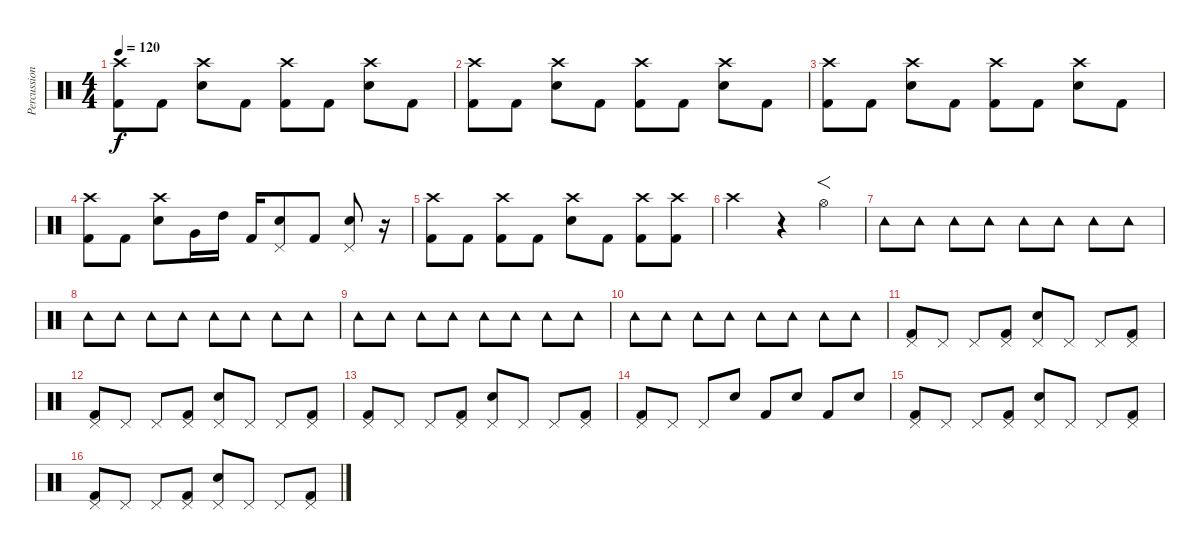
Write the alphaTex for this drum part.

\track ("Percussion" "Percussion") {instrument percussion}
\staff {score}
\articulation defaults
\ts (4 4)
\tempo 120
\clef neutral
\ks c
("Crash high (hit)" "Kick (hit) 2").8{dy f} "Kick (hit) 2".8 ("Crash high (hit)" "Electric Snare (hit)").8 "Kick (hit) 2".8 ("Crash high (hit)" "Kick (hit) 2").8 "Kick (hit) 2".8 ("Crash high (hit)" "Electric Snare (hit)").8 "Kick (hit) 2".8 |
("Crash high (hit)" "Kick (hit) 2").8 "Kick (hit) 2".8 ("Crash high (hit)" "Electric Snare (hit)").8 "Kick (hit) 2".8 ("Crash high (hit)" "Kick (hit) 2").8 "Kick (hit) 2".8 ("Crash high (hit)" "Electric Snare (hit)").8 "Kick (hit) 2".8 |
("Crash high (hit)" "Kick (hit) 2").8 "Kick (hit) 2".8 ("Crash high (hit)" "Electric Snare (hit)").8 "Kick (hit) 2".8 ("Crash high (hit)" "Kick (hit) 2").8 "Kick (hit) 2".8 ("Crash high (hit)" "Electric Snare (hit)").8 "Kick (hit) 2".8 |
("Crash high (hit)" "Kick (hit) 2").8 "Kick (hit) 2".8 ("Crash high (hit)" "Electric Snare (hit)").8 "Very Low Tom (hit)".16 "High Tom (hit)".16 "Kick (hit) 2".16 ("Pedal Hi-Hat (hit)" "Electric Snare (hit)").8 "Kick (hit) 2".8 ("Pedal Hi-Hat (hit)" "Electric Snare (hit)").8 r.16 |
("Crash high (hit)" "Kick (hit) 2").8 "Kick (hit) 2".8 ("Crash high (hit)" "Kick (hit) 2").8 "Kick (hit) 2".8 ("Crash high (hit)" "Electric Snare (hit)").8 "Kick (hit) 2".8 ("Crash high (hit)" "Kick (hit) 2").8 ("Crash high (hit)" "Kick (hit) 2").8 |
"Crash high (hit)".2 r.4 "Hi-Hat (open)".4{f} |
"Tambourine (hit)".8 "Tambourine (hit)".8 "Tambourine (hit)".8 "Tambourine (hit)".8 "Tambourine (hit)".8 "Tambourine (hit)".8 "Tambourine (hit)".8 "Tambourine (hit)".8 |
"Tambourine (hit)".8 "Tambourine (hit)".8 "Tambourine (hit)".8 "Tambourine (hit)".8 "Tambourine (hit)".8 "Tambourine (hit)".8 "Tambourine (hit)".8 "Tambourine (hit)".8 |
"Tambourine (hit)".8 "Tambourine (hit)".8 "Tambourine (hit)".8 "Tambourine (hit)".8 "Tambourine (hit)".8 "Tambourine (hit)".8 "Tambourine (hit)".8 "Tambourine (hit)".8 |
"Tambourine (hit)".8 "Tambourine (hit)".8 "Tambourine (hit)".8 "Tambourine (hit)".8 "Tambourine (hit)".8 "Tambourine (hit)".8 "Tambourine (hit)".8 "Tambourine (hit)".8 |
("Pedal Hi-Hat (hit)" "Kick (hit) 2").8 "Pedal Hi-Hat (hit)".8 "Pedal Hi-Hat (hit)".8 ("Pedal Hi-Hat (hit)" "Kick (hit) 2").8 ("Pedal Hi-Hat (hit)" "Electric Snare (hit)").8 "Pedal Hi-Hat (hit)".8 "Pedal Hi-Hat (hit)".8 ("Pedal Hi-Hat (hit)" "Kick (hit) 2").8 |
("Pedal Hi-Hat (hit)" "Kick (hit) 2").8 "Pedal Hi-Hat (hit)".8 "Pedal Hi-Hat (hit)".8 ("Pedal Hi-Hat (hit)" "Kick (hit) 2").8 ("Pedal Hi-Hat (hit)" "Electric Snare (hit)").8 "Pedal Hi-Hat (hit)".8 "Pedal Hi-Hat (hit)".8 ("Pedal Hi-Hat (hit)" "Kick (hit) 2").8 |
("Pedal Hi-Hat (hit)" "Kick (hit) 2").8 "Pedal Hi-Hat (hit)".8 "Pedal Hi-Hat (hit)".8 ("Pedal Hi-Hat (hit)" "Kick (hit) 2").8 ("Pedal Hi-Hat (hit)" "Electric Snare (hit)").8 "Pedal Hi-Hat (hit)".8 "Pedal Hi-Hat (hit)".8 ("Pedal Hi-Hat (hit)" "Kick (hit) 2").8 |
("Pedal Hi-Hat (hit)" "Kick (hit) 2").8 "Pedal Hi-Hat (hit)".8 "Pedal Hi-Hat (hit)".8 "Electric Snare (hit)".8 "Kick (hit) 2".8 "Electric Snare (hit)".8 "Kick (hit) 2".8 "Electric Snare (hit)".8 |
("Pedal Hi-Hat (hit)" "Kick (hit) 2").8 "Pedal Hi-Hat (hit)".8 "Pedal Hi-Hat (hit)".8 ("Pedal Hi-Hat (hit)" "Kick (hit) 2").8 ("Pedal Hi-Hat (hit)" "Electric Snare (hit)").8 "Pedal Hi-Hat (hit)".8 "Pedal Hi-Hat (hit)".8 ("Pedal Hi-Hat (hit)" "Kick (hit) 2").8 |
("Pedal Hi-Hat (hit)" "Kick (hit) 2").8 "Pedal Hi-Hat (hit)".8 "Pedal Hi-Hat (hit)".8 ("Pedal Hi-Hat (hit)" "Kick (hit) 2").8 ("Pedal Hi-Hat (hit)" "Electric Snare (hit)").8 "Pedal Hi-Hat (hit)".8 "Pedal Hi-Hat (hit)".8 ("Pedal Hi-Hat (hit)" "Kick (hit) 2").8
